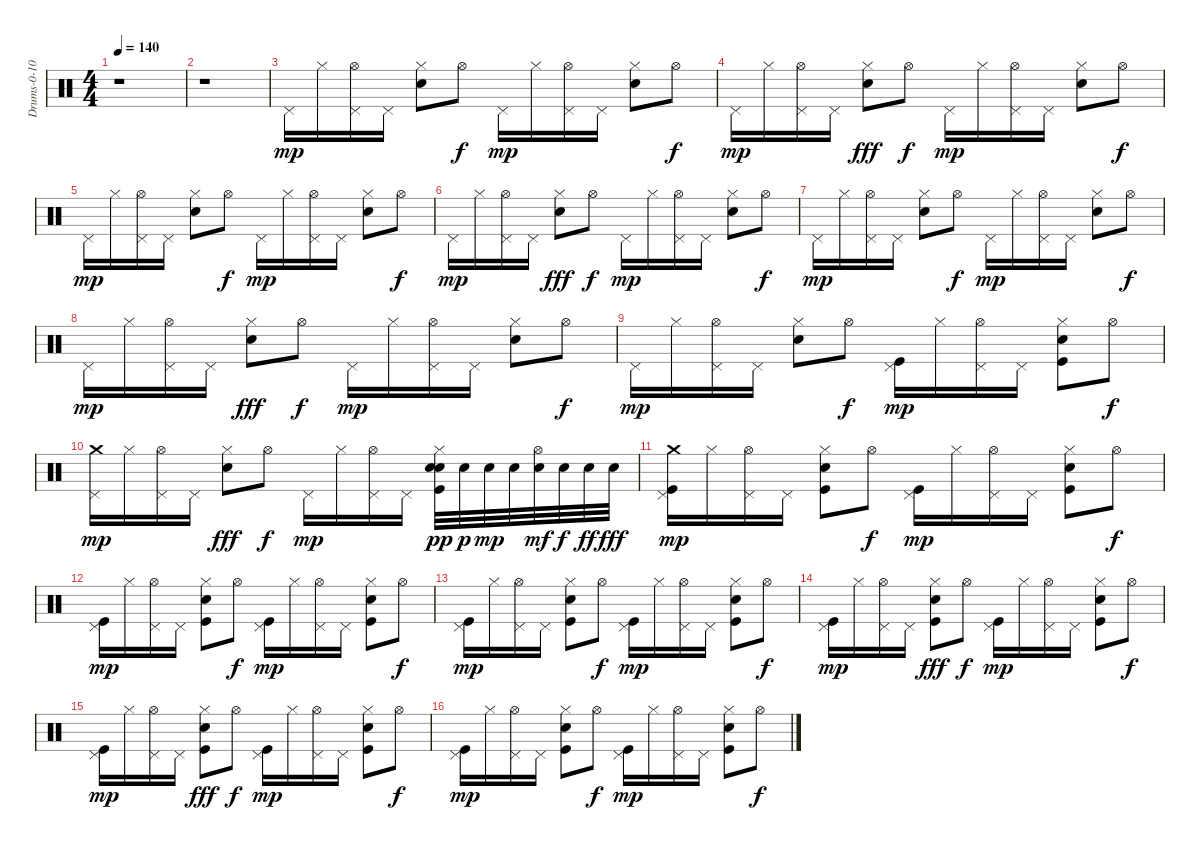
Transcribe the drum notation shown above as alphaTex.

\track ("Drums-0-10" "Drums-0-10") {instrument percussion}
\staff {score}
\articulation defaults
\ts (4 4)
\tempo 140
\clef neutral
\ks c
r.1{dy pp} |
r.1 |
"Pedal Hi-Hat (hit)".16{dy mp} "Hi-Hat (closed)".16 ("Pedal Hi-Hat (hit)" "Hi-Hat (open)").16 "Pedal Hi-Hat (hit)".16 ("Hand Clap (hit)" "Hi-Hat (closed)").8 "Hi-Hat (open)".8{dy f} "Pedal Hi-Hat (hit)".16{dy mp} "Hi-Hat (closed)".16 ("Pedal Hi-Hat (hit)" "Hi-Hat (open)").16 "Pedal Hi-Hat (hit)".16 ("Hand Clap (hit)" "Hi-Hat (closed)").8 "Hi-Hat (open)".8{dy f} |
"Pedal Hi-Hat (hit)".16{dy mp} "Hi-Hat (closed)".16 ("Pedal Hi-Hat (hit)" "Hi-Hat (open)").16 "Pedal Hi-Hat (hit)".16 ("Hi-Hat (closed)" "Hand Clap (hit)").8{dy fff} "Hi-Hat (open)".8{dy f} "Pedal Hi-Hat (hit)".16{dy mp} "Hi-Hat (closed)".16 ("Pedal Hi-Hat (hit)" "Hi-Hat (open)").16 "Pedal Hi-Hat (hit)".16 ("Hand Clap (hit)" "Hi-Hat (closed)").8 "Hi-Hat (open)".8{dy f} |
"Pedal Hi-Hat (hit)".16{dy mp} "Hi-Hat (closed)".16 ("Hi-Hat (open)" "Pedal Hi-Hat (hit)").16 "Pedal Hi-Hat (hit)".16 ("Hand Clap (hit)" "Hi-Hat (closed)").8 "Hi-Hat (open)".8{dy f} "Pedal Hi-Hat (hit)".16{dy mp} "Hi-Hat (closed)".16 ("Hi-Hat (open)" "Pedal Hi-Hat (hit)").16 "Pedal Hi-Hat (hit)".16 ("Hi-Hat (closed)" "Hand Clap (hit)").8 "Hi-Hat (open)".8{dy f} |
"Pedal Hi-Hat (hit)".16{dy mp} "Hi-Hat (closed)".16 ("Pedal Hi-Hat (hit)" "Hi-Hat (open)").16 "Pedal Hi-Hat (hit)".16 ("Hi-Hat (closed)" "Hand Clap (hit)").8{dy fff} "Hi-Hat (open)".8{dy f} "Pedal Hi-Hat (hit)".16{dy mp} "Hi-Hat (closed)".16 ("Pedal Hi-Hat (hit)" "Hi-Hat (open)").16 "Pedal Hi-Hat (hit)".16 ("Hand Clap (hit)" "Hi-Hat (closed)").8 "Hi-Hat (open)".8{dy f} |
"Pedal Hi-Hat (hit)".16{dy mp} "Hi-Hat (closed)".16 ("Hi-Hat (open)" "Pedal Hi-Hat (hit)").16 "Pedal Hi-Hat (hit)".16 ("Hand Clap (hit)" "Hi-Hat (closed)").8 "Hi-Hat (open)".8{dy f} "Pedal Hi-Hat (hit)".16{dy mp} "Hi-Hat (closed)".16 ("Hi-Hat (open)" "Pedal Hi-Hat (hit)").16 "Pedal Hi-Hat (hit)".16 ("Hi-Hat (closed)" "Hand Clap (hit)").8 "Hi-Hat (open)".8{dy f} |
"Pedal Hi-Hat (hit)".16{dy mp} "Hi-Hat (closed)".16 ("Pedal Hi-Hat (hit)" "Hi-Hat (open)").16 "Pedal Hi-Hat (hit)".16 ("Hi-Hat (closed)" "Hand Clap (hit)").8{dy fff} "Hi-Hat (open)".8{dy f} "Pedal Hi-Hat (hit)".16{dy mp} "Hi-Hat (closed)".16 ("Pedal Hi-Hat (hit)" "Hi-Hat (open)").16 "Pedal Hi-Hat (hit)".16 ("Hi-Hat (closed)" "Hand Clap (hit)").8 "Hi-Hat (open)".8{dy f} |
"Pedal Hi-Hat (hit)".16{dy mp} "Hi-Hat (closed)".16 ("Pedal Hi-Hat (hit)" "Hi-Hat (open)").16 "Pedal Hi-Hat (hit)".16 ("Hand Clap (hit)" "Hi-Hat (closed)").8 "Hi-Hat (open)".8{dy f} ("Kick (hit)" "Pedal Hi-Hat (hit)").16{dy mp} "Hi-Hat (closed)".16 ("Pedal Hi-Hat (hit)" "Hi-Hat (open)").16 "Pedal Hi-Hat (hit)".16 ("Kick (hit)" "Hand Clap (hit)" "Hi-Hat (closed)").8 "Hi-Hat (open)".8{dy f} |
("Crash medium (hit)" "Pedal Hi-Hat (hit)").16{dy mp} "Hi-Hat (closed)".16 ("Pedal Hi-Hat (hit)" "Hi-Hat (open)").16 "Pedal Hi-Hat (hit)".16 ("Hi-Hat (closed)" "Hand Clap (hit)").8{dy fff} "Hi-Hat (open)".8{dy f} "Pedal Hi-Hat (hit)".16{dy mp} "Hi-Hat (closed)".16 ("Pedal Hi-Hat (hit)" "Hi-Hat (open)").16 "Pedal Hi-Hat (hit)".16 ("Hand Clap (hit)" "Kick (hit)" "Hi-Hat (closed)" "Snare (hit) 2").32{dy pp} "Snare (hit) 2".32{dy p} "Snare (hit) 2".32{dy mp} "Snare (hit) 2".32 ("Hi-Hat (open)" "Snare (hit) 2").32{dy mf} "Snare (hit) 2".32{dy f} "Snare (hit) 2".32{dy ff} "Snare (hit) 2".32{dy fff} |
("Crash medium (hit)" "Kick (hit)" "Pedal Hi-Hat (hit)").16{dy mp} "Hi-Hat (closed)".16 ("Hi-Hat (open)" "Pedal Hi-Hat (hit)").16 "Pedal Hi-Hat (hit)".16 ("Kick (hit)" "Hand Clap (hit)" "Hi-Hat (closed)").8 "Hi-Hat (open)".8{dy f} ("Pedal Hi-Hat (hit)" "Kick (hit)").16{dy mp} "Hi-Hat (closed)".16 ("Pedal Hi-Hat (hit)" "Hi-Hat (open)").16 "Pedal Hi-Hat (hit)".16 ("Hi-Hat (closed)" "Hand Clap (hit)" "Kick (hit)").8 "Hi-Hat (open)".8{dy f} |
("Kick (hit)" "Pedal Hi-Hat (hit)").16{dy mp} "Hi-Hat (closed)".16 ("Hi-Hat (open)" "Pedal Hi-Hat (hit)").16 "Pedal Hi-Hat (hit)".16 ("Kick (hit)" "Hand Clap (hit)" "Hi-Hat (closed)").8 "Hi-Hat (open)".8{dy f} ("Pedal Hi-Hat (hit)" "Kick (hit)").16{dy mp} "Hi-Hat (closed)".16 ("Pedal Hi-Hat (hit)" "Hi-Hat (open)").16 "Pedal Hi-Hat (hit)".16 ("Kick (hit)" "Hand Clap (hit)" "Hi-Hat (closed)").8 "Hi-Hat (open)".8{dy f} |
("Kick (hit)" "Pedal Hi-Hat (hit)").16{dy mp} "Hi-Hat (closed)".16 ("Hi-Hat (open)" "Pedal Hi-Hat (hit)").16 "Pedal Hi-Hat (hit)".16 ("Hand Clap (hit)" "Kick (hit)" "Hi-Hat (closed)").8 "Hi-Hat (open)".8{dy f} ("Kick (hit)" "Pedal Hi-Hat (hit)").16{dy mp} "Hi-Hat (closed)".16 ("Pedal Hi-Hat (hit)" "Hi-Hat (open)").16 "Pedal Hi-Hat (hit)".16 ("Hand Clap (hit)" "Kick (hit)" "Hi-Hat (closed)").8 "Hi-Hat (open)".8{dy f} |
("Pedal Hi-Hat (hit)" "Kick (hit)").16{dy mp} "Hi-Hat (closed)".16 ("Pedal Hi-Hat (hit)" "Hi-Hat (open)").16 "Pedal Hi-Hat (hit)".16 ("Kick (hit)" "Hi-Hat (closed)" "Hand Clap (hit)").8{dy fff} "Hi-Hat (open)".8{dy f} ("Kick (hit)" "Pedal Hi-Hat (hit)").16{dy mp} "Hi-Hat (closed)".16 ("Hi-Hat (open)" "Pedal Hi-Hat (hit)").16 "Pedal Hi-Hat (hit)".16 ("Hand Clap (hit)" "Kick (hit)" "Hi-Hat (closed)").8 "Hi-Hat (open)".8{dy f} |
("Pedal Hi-Hat (hit)" "Kick (hit)").16{dy mp} "Hi-Hat (closed)".16 ("Hi-Hat (open)" "Pedal Hi-Hat (hit)").16 "Pedal Hi-Hat (hit)".16 ("Kick (hit)" "Hi-Hat (closed)" "Hand Clap (hit)").8{dy fff} "Hi-Hat (open)".8{dy f} ("Pedal Hi-Hat (hit)" "Kick (hit)").16{dy mp} "Hi-Hat (closed)".16 ("Pedal Hi-Hat (hit)" "Hi-Hat (open)").16 "Pedal Hi-Hat (hit)".16 ("Hand Clap (hit)" "Kick (hit)" "Hi-Hat (closed)").8 "Hi-Hat (open)".8{dy f} |
("Pedal Hi-Hat (hit)" "Kick (hit)").16{dy mp} "Hi-Hat (closed)".16 ("Hi-Hat (open)" "Pedal Hi-Hat (hit)").16 "Pedal Hi-Hat (hit)".16 ("Kick (hit)" "Hand Clap (hit)" "Hi-Hat (closed)").8 "Hi-Hat (open)".8{dy f} ("Kick (hit)" "Pedal Hi-Hat (hit)").16{dy mp} "Hi-Hat (closed)".16 ("Pedal Hi-Hat (hit)" "Hi-Hat (open)").16 "Pedal Hi-Hat (hit)".16 ("Hand Clap (hit)" "Kick (hit)" "Hi-Hat (closed)").8 "Hi-Hat (open)".8{dy f}
